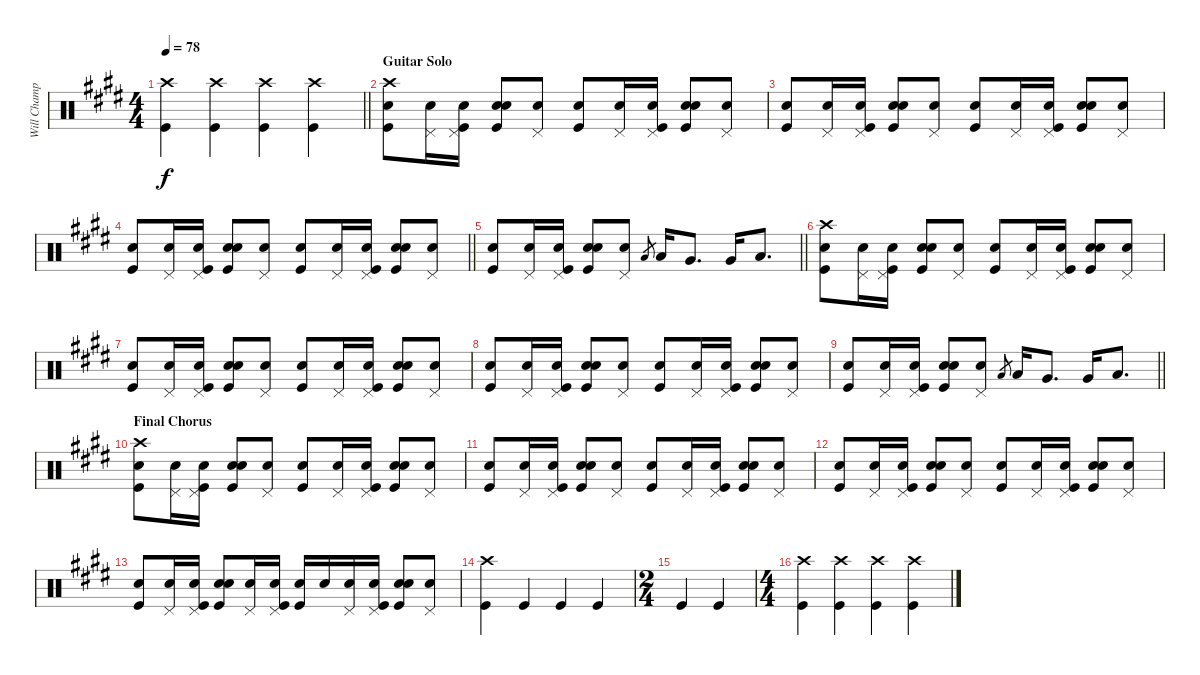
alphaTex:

\track ("Will Champion/Drums" "Will Champ") {instrument percussion}
\staff {score}
\articulation defaults
\ts (4 4)
\tempo 78
\clef neutral
\barLineRight lightlight
\ks c#minor
("Crash high (hit)" "Kick (hit)").4{dy f} ("Crash high (hit)" "Kick (hit)").4 ("Crash high (hit)" "Kick (hit)").4 ("Crash high (hit)" "Kick (hit)").4 |
\section ("" "Guitar Solo")
("Snare (hit)" "Crash high (hit)" "Kick (hit)").8 ("Pedal Hi-Hat (hit)" "Snare (hit)").16 ("Snare (hit)" "Pedal Hi-Hat (hit)" "Kick (hit)").16 ("Snare (hit)" "Snare (hit) 2" "Kick (hit)").8 ("Pedal Hi-Hat (hit)" "Snare (hit)").8 ("Snare (hit)" "Kick (hit)").8 ("Pedal Hi-Hat (hit)" "Snare (hit)").16 ("Snare (hit)" "Pedal Hi-Hat (hit)" "Kick (hit)").16 ("Snare (hit)" "Snare (hit) 2" "Kick (hit)").8 ("Pedal Hi-Hat (hit)" "Snare (hit)").8 |
("Snare (hit)" "Kick (hit)").8 ("Pedal Hi-Hat (hit)" "Snare (hit)").16 ("Snare (hit)" "Pedal Hi-Hat (hit)" "Kick (hit)").16 ("Snare (hit)" "Snare (hit) 2" "Kick (hit)").8 ("Pedal Hi-Hat (hit)" "Snare (hit)").8 ("Snare (hit)" "Kick (hit)").8 ("Pedal Hi-Hat (hit)" "Snare (hit)").16 ("Snare (hit)" "Pedal Hi-Hat (hit)" "Kick (hit)").16 ("Snare (hit)" "Snare (hit) 2" "Kick (hit)").8 ("Pedal Hi-Hat (hit)" "Snare (hit)").8 |
\barLineRight lightlight
("Snare (hit)" "Kick (hit)").8 ("Pedal Hi-Hat (hit)" "Snare (hit)").16 ("Snare (hit)" "Pedal Hi-Hat (hit)" "Kick (hit)").16 ("Snare (hit)" "Snare (hit) 2" "Kick (hit)").8 ("Pedal Hi-Hat (hit)" "Snare (hit)").8 ("Snare (hit)" "Kick (hit)").8 ("Pedal Hi-Hat (hit)" "Snare (hit)").16 ("Snare (hit)" "Pedal Hi-Hat (hit)" "Kick (hit)").16 ("Snare (hit)" "Snare (hit) 2" "Kick (hit)").8 ("Pedal Hi-Hat (hit)" "Snare (hit)").8 |
\barLineRight lightlight
("Snare (hit)" "Kick (hit)").8 ("Pedal Hi-Hat (hit)" "Snare (hit)").16 ("Snare (hit)" "Pedal Hi-Hat (hit)" "Kick (hit)").16 ("Snare (hit)" "Snare (hit) 2" "Kick (hit)").8 ("Pedal Hi-Hat (hit)" "Snare (hit)").8 "Low Tom (hit)".8{gr} "Low Tom (hit)".16 "Very Low Tom (hit)".8{d} "Very Low Tom (hit)".16 "Low Floor Tom (hit)".8{d} |
("Snare (hit)" "Crash high (hit)" "Kick (hit)").8 ("Pedal Hi-Hat (hit)" "Snare (hit)").16 ("Snare (hit)" "Pedal Hi-Hat (hit)" "Kick (hit)").16 ("Snare (hit)" "Snare (hit) 2" "Kick (hit)").8 ("Pedal Hi-Hat (hit)" "Snare (hit)").8 ("Snare (hit)" "Kick (hit)").8 ("Pedal Hi-Hat (hit)" "Snare (hit)").16 ("Snare (hit)" "Pedal Hi-Hat (hit)" "Kick (hit)").16 ("Snare (hit)" "Snare (hit) 2" "Kick (hit)").8 ("Pedal Hi-Hat (hit)" "Snare (hit)").8 |
("Snare (hit)" "Kick (hit)").8 ("Pedal Hi-Hat (hit)" "Snare (hit)").16 ("Snare (hit)" "Pedal Hi-Hat (hit)" "Kick (hit)").16 ("Snare (hit)" "Snare (hit) 2" "Kick (hit)").8 ("Pedal Hi-Hat (hit)" "Snare (hit)").8 ("Snare (hit)" "Kick (hit)").8 ("Pedal Hi-Hat (hit)" "Snare (hit)").16 ("Snare (hit)" "Pedal Hi-Hat (hit)" "Kick (hit)").16 ("Snare (hit)" "Snare (hit) 2" "Kick (hit)").8 ("Pedal Hi-Hat (hit)" "Snare (hit)").8 |
("Snare (hit)" "Kick (hit)").8 ("Pedal Hi-Hat (hit)" "Snare (hit)").16 ("Snare (hit)" "Pedal Hi-Hat (hit)" "Kick (hit)").16 ("Snare (hit)" "Snare (hit) 2" "Kick (hit)").8 ("Pedal Hi-Hat (hit)" "Snare (hit)").8 ("Snare (hit)" "Kick (hit)").8 ("Pedal Hi-Hat (hit)" "Snare (hit)").16 ("Snare (hit)" "Pedal Hi-Hat (hit)" "Kick (hit)").16 ("Snare (hit)" "Snare (hit) 2" "Kick (hit)").8 ("Pedal Hi-Hat (hit)" "Snare (hit)").8 |
\barLineRight lightlight
("Snare (hit)" "Kick (hit)").8 ("Pedal Hi-Hat (hit)" "Snare (hit)").16 ("Snare (hit)" "Pedal Hi-Hat (hit)" "Kick (hit)").16 ("Snare (hit)" "Snare (hit) 2" "Kick (hit)").8 ("Pedal Hi-Hat (hit)" "Snare (hit)").8 "Low Tom (hit)".8{gr} "Low Tom (hit)".16 "Very Low Tom (hit)".8{d} "Very Low Tom (hit)".16 "Low Floor Tom (hit)".8{d} |
\section ("" "Final Chorus")
("Snare (hit)" "Crash high (hit)" "Kick (hit)").8 ("Pedal Hi-Hat (hit)" "Snare (hit)").16 ("Snare (hit)" "Pedal Hi-Hat (hit)" "Kick (hit)").16 ("Snare (hit)" "Snare (hit) 2" "Kick (hit)").8 ("Pedal Hi-Hat (hit)" "Snare (hit)").8 ("Snare (hit)" "Kick (hit)").8 ("Pedal Hi-Hat (hit)" "Snare (hit)").16 ("Snare (hit)" "Pedal Hi-Hat (hit)" "Kick (hit)").16 ("Snare (hit)" "Snare (hit) 2" "Kick (hit)").8 ("Pedal Hi-Hat (hit)" "Snare (hit)").8 |
("Snare (hit)" "Kick (hit)").8 ("Pedal Hi-Hat (hit)" "Snare (hit)").16 ("Snare (hit)" "Pedal Hi-Hat (hit)" "Kick (hit)").16 ("Snare (hit)" "Snare (hit) 2" "Kick (hit)").8 ("Pedal Hi-Hat (hit)" "Snare (hit)").8 ("Snare (hit)" "Kick (hit)").8 ("Pedal Hi-Hat (hit)" "Snare (hit)").16 ("Snare (hit)" "Pedal Hi-Hat (hit)" "Kick (hit)").16 ("Snare (hit)" "Snare (hit) 2" "Kick (hit)").8 ("Pedal Hi-Hat (hit)" "Snare (hit)").8 |
("Snare (hit)" "Kick (hit)").8 ("Pedal Hi-Hat (hit)" "Snare (hit)").16 ("Snare (hit)" "Pedal Hi-Hat (hit)" "Kick (hit)").16 ("Snare (hit)" "Snare (hit) 2" "Kick (hit)").8 ("Pedal Hi-Hat (hit)" "Snare (hit)").8 ("Snare (hit)" "Kick (hit)").8 ("Pedal Hi-Hat (hit)" "Snare (hit)").16 ("Snare (hit)" "Pedal Hi-Hat (hit)" "Kick (hit)").16 ("Snare (hit)" "Snare (hit) 2" "Kick (hit)").8 ("Pedal Hi-Hat (hit)" "Snare (hit)").8 |
("Snare (hit)" "Kick (hit)").8 ("Pedal Hi-Hat (hit)" "Snare (hit)").16 ("Snare (hit)" "Pedal Hi-Hat (hit)" "Kick (hit)").16 ("Snare (hit)" "Snare (hit) 2" "Kick (hit)").8 ("Pedal Hi-Hat (hit)" "Snare (hit)").16 ("Pedal Hi-Hat (hit)" "Snare (hit)" "Kick (hit)").16 ("Snare (hit)" "Kick (hit)").16 "Snare (hit) 2".16 ("Snare (hit)" "Pedal Hi-Hat (hit)").16 ("Snare (hit)" "Pedal Hi-Hat (hit)" "Kick (hit)").16 ("Snare (hit)" "Snare (hit) 2" "Kick (hit)").8 ("Pedal Hi-Hat (hit)" "Snare (hit)").8 |
("Crash high (hit)" "Kick (hit)").4 "Kick (hit)".4 "Kick (hit)".4 "Kick (hit)".4 |
\ts (2 4)
"Kick (hit)".4 "Kick (hit)".4 |
\ts (4 4)
("Crash high (hit)" "Kick (hit)").4 ("Crash high (hit)" "Kick (hit)").4 ("Crash high (hit)" "Kick (hit)").4 ("Crash high (hit)" "Kick (hit)").4
